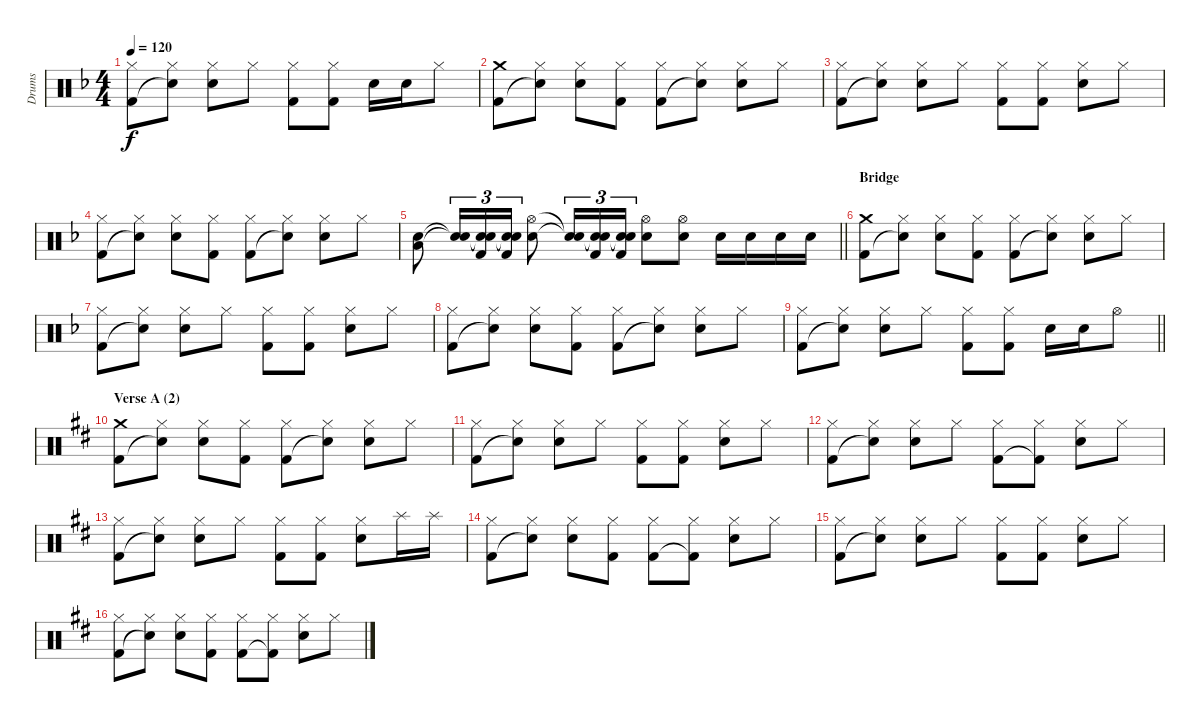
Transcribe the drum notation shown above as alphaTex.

\track ("Drums" "Drums") {instrument percussion}
\staff {score}
\articulation defaults
\ts (4 4)
\tempo 120
\clef neutral
\ks dminor
("Hi-Hat (closed)" "Kick (hit) 2").8{dy f} ("Hi-Hat (closed)" "Snare (hit)"{t}).8 ("Hi-Hat (closed)" "Electric Snare (hit)").8 "Hi-Hat (closed)".8 ("Hi-Hat (closed)" "Kick (hit) 2").8 ("Hi-Hat (closed)" "Kick (hit) 2").8 "Electric Snare (hit)".16 "Electric Snare (hit)".16 "Hi-Hat (closed)".8 |
("Crash medium (hit)" "Kick (hit) 2").8 ("Hi-Hat (closed)" "Snare (hit)"{t}).8 ("Hi-Hat (closed)" "Electric Snare (hit)").8 ("Hi-Hat (closed)" "Kick (hit) 2").8 ("Hi-Hat (closed)" "Kick (hit) 2").8 ("Hi-Hat (closed)" "Snare (hit)"{t}).8 ("Hi-Hat (closed)" "Electric Snare (hit)").8 "Hi-Hat (closed)".8 |
("Hi-Hat (closed)" "Kick (hit) 2").8 ("Hi-Hat (closed)" "Snare (hit)"{t}).8 ("Hi-Hat (closed)" "Electric Snare (hit)").8 "Hi-Hat (closed)".8 ("Hi-Hat (closed)" "Kick (hit) 2").8 ("Hi-Hat (closed)" "Kick (hit) 2").8 ("Hi-Hat (closed)" "Electric Snare (hit)").8 "Hi-Hat (closed)".8 |
("Hi-Hat (closed)" "Kick (hit) 2").8 ("Hi-Hat (closed)" "Snare (hit)"{t}).8 ("Hi-Hat (closed)" "Electric Snare (hit)").8 ("Hi-Hat (closed)" "Kick (hit) 2").8 ("Hi-Hat (closed)" "Kick (hit) 2").8 ("Hi-Hat (closed)" "Snare (hit)"{t}).8 ("Hi-Hat (closed)" "Electric Snare (hit)").8 "Hi-Hat (closed)".8 |
\barLineRight lightlight
("Electric Snare (hit)" "Low Floor Tom (hit)").8 ("Snare (hit)"{t} "Snare (hit)"{t}).16{tu (3 2)} ("Snare (hit)"{t} "Snare (hit)"{t} "Kick (hit) 2").16{tu (3 2)} ("Snare (hit)"{t} "Snare (hit)"{t} "Kick (hit) 2").16{tu (3 2)} ("Hi-Hat (open)" "Electric Snare (hit)").8 ("Snare (hit)"{t} "Snare (hit)"{t}).16{tu (3 2)} ("Snare (hit)"{t} "Snare (hit)"{t} "Kick (hit) 2").16{tu (3 2)} ("Snare (hit)"{t} "Snare (hit)"{t} "Kick (hit) 2").16{tu (3 2)} ("Hi-Hat (open)" "Electric Snare (hit)").8 ("Hi-Hat (open)" "Electric Snare (hit)").8 "Electric Snare (hit)".16 "Electric Snare (hit)".16 "Electric Snare (hit)".16 "Electric Snare (hit)".16 |
\section ("" "Bridge")
("Crash medium (hit)" "Kick (hit) 2").8 ("Hi-Hat (closed)" "Snare (hit)"{t}).8 ("Hi-Hat (closed)" "Electric Snare (hit)").8 ("Hi-Hat (closed)" "Kick (hit) 2").8 ("Hi-Hat (closed)" "Kick (hit) 2").8 ("Hi-Hat (closed)" "Snare (hit)"{t}).8 ("Hi-Hat (closed)" "Electric Snare (hit)").8 "Hi-Hat (closed)".8 |
("Hi-Hat (closed)" "Kick (hit) 2").8 ("Hi-Hat (closed)" "Snare (hit)"{t}).8 ("Hi-Hat (closed)" "Electric Snare (hit)").8 "Hi-Hat (closed)".8 ("Hi-Hat (closed)" "Kick (hit) 2").8 ("Hi-Hat (closed)" "Kick (hit) 2").8 ("Hi-Hat (closed)" "Electric Snare (hit)").8 "Hi-Hat (closed)".8 |
("Hi-Hat (closed)" "Kick (hit) 2").8 ("Hi-Hat (closed)" "Snare (hit)"{t}).8 ("Hi-Hat (closed)" "Electric Snare (hit)").8 ("Hi-Hat (closed)" "Kick (hit) 2").8 ("Hi-Hat (closed)" "Kick (hit) 2").8 ("Hi-Hat (closed)" "Snare (hit)"{t}).8 ("Hi-Hat (closed)" "Electric Snare (hit)").8 "Hi-Hat (closed)".8 |
\barLineRight lightlight
("Hi-Hat (closed)" "Kick (hit) 2").8 ("Hi-Hat (closed)" "Snare (hit)"{t}).8 ("Hi-Hat (closed)" "Electric Snare (hit)").8 "Hi-Hat (closed)".8 ("Hi-Hat (closed)" "Kick (hit) 2").8 ("Hi-Hat (closed)" "Kick (hit) 2").8 "Electric Snare (hit)".16 "Electric Snare (hit)".16 "Hi-Hat (open)".8 |
\section ("" "Verse A (2)")
\ks d
("Crash medium (hit)" "Kick (hit) 2").8 ("Hi-Hat (closed)" "Snare (hit)"{t}).8 ("Hi-Hat (closed)" "Electric Snare (hit)").8 ("Hi-Hat (closed)" "Kick (hit) 2").8 ("Hi-Hat (closed)" "Kick (hit) 2").8 ("Hi-Hat (closed)" "Snare (hit)"{t}).8 ("Hi-Hat (closed)" "Electric Snare (hit)").8 "Hi-Hat (closed)".8 |
("Hi-Hat (closed)" "Kick (hit) 2").8 ("Hi-Hat (closed)" "Snare (hit)"{t}).8 ("Hi-Hat (closed)" "Electric Snare (hit)").8 "Hi-Hat (closed)".8 ("Hi-Hat (closed)" "Kick (hit) 2").8 ("Hi-Hat (closed)" "Kick (hit) 2").8 ("Hi-Hat (closed)" "Electric Snare (hit)").8 "Hi-Hat (closed)".8 |
("Hi-Hat (closed)" "Kick (hit) 2").8 ("Hi-Hat (closed)" "Snare (hit)"{t}).8 ("Hi-Hat (closed)" "Electric Snare (hit)").8 "Hi-Hat (closed)".8 ("Hi-Hat (closed)" "Kick (hit) 2").8 ("Hi-Hat (closed)" "Kick (hit) 2"{t}).8 ("Hi-Hat (closed)" "Electric Snare (hit)").8 "Hi-Hat (closed)".8 |
("Hi-Hat (closed)" "Kick (hit) 2").8 ("Hi-Hat (closed)" "Snare (hit)"{t}).8 ("Hi-Hat (closed)" "Electric Snare (hit)").8 "Hi-Hat (closed)".8 ("Hi-Hat (closed)" "Kick (hit) 2").8 ("Hi-Hat (closed)" "Kick (hit) 2").8 ("Hi-Hat (closed)" "Electric Snare (hit)").8 "Splash (hit)".16 "Splash (hit)".16 |
("Hi-Hat (closed)" "Kick (hit) 2").8 ("Hi-Hat (closed)" "Snare (hit)"{t}).8 ("Hi-Hat (closed)" "Electric Snare (hit)").8 ("Hi-Hat (closed)" "Kick (hit) 2").8 ("Hi-Hat (closed)" "Kick (hit) 2").8 ("Hi-Hat (closed)" "Kick (hit) 2"{t}).8 ("Hi-Hat (closed)" "Electric Snare (hit)").8 "Hi-Hat (closed)".8 |
("Hi-Hat (closed)" "Kick (hit) 2").8 ("Hi-Hat (closed)" "Snare (hit)"{t}).8 ("Hi-Hat (closed)" "Electric Snare (hit)").8 "Hi-Hat (closed)".8 ("Hi-Hat (closed)" "Kick (hit) 2").8 ("Hi-Hat (closed)" "Kick (hit) 2").8 ("Hi-Hat (closed)" "Electric Snare (hit)").8 "Hi-Hat (closed)".8 |
("Hi-Hat (closed)" "Kick (hit) 2").8 ("Hi-Hat (closed)" "Snare (hit)"{t}).8 ("Hi-Hat (closed)" "Electric Snare (hit)").8 ("Hi-Hat (closed)" "Kick (hit) 2").8 ("Hi-Hat (closed)" "Kick (hit) 2").8 ("Hi-Hat (closed)" "Kick (hit) 2"{t}).8 ("Hi-Hat (closed)" "Electric Snare (hit)").8 "Hi-Hat (closed)".8
